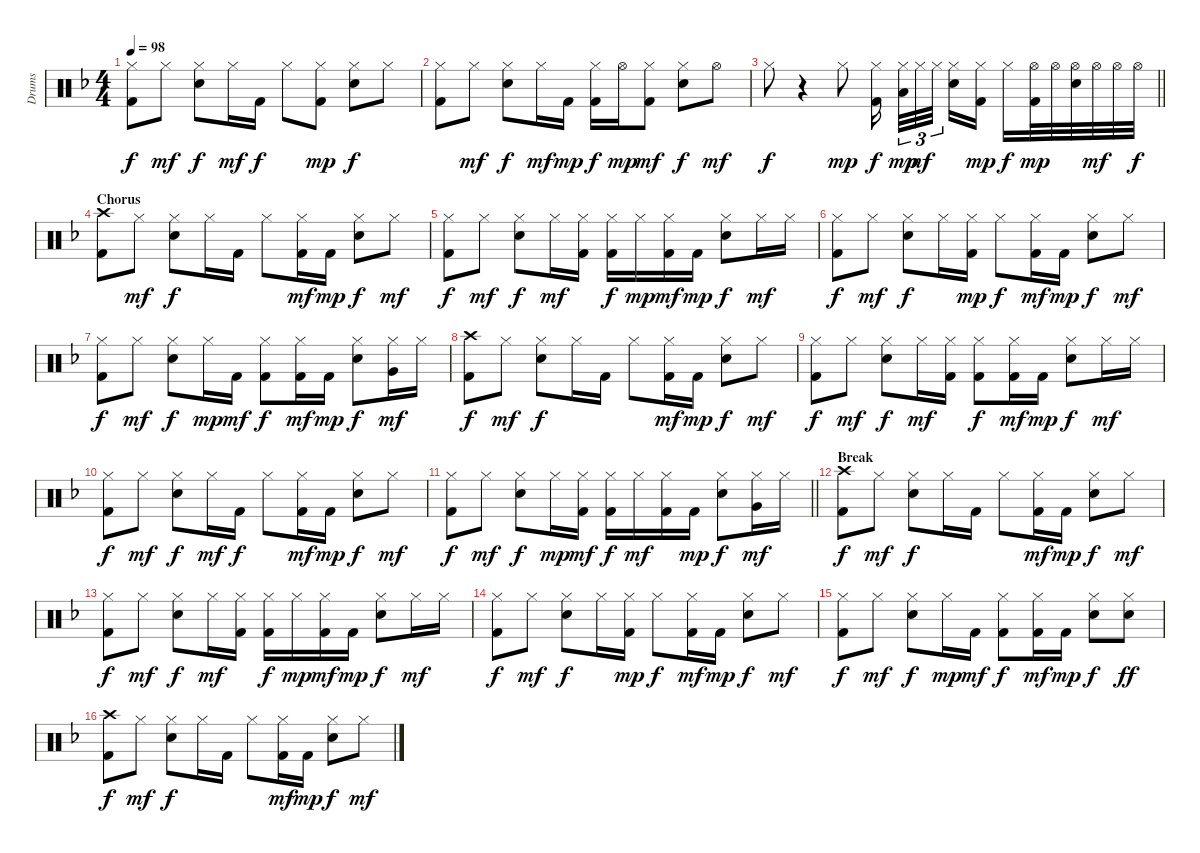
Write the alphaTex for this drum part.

\track ("Drums" "Drums") {instrument percussion}
\staff {score}
\articulation defaults
\ts (4 4)
\tempo 98
\clef neutral
\ks f
("Hi-Hat (closed)" "Kick (hit) 2").8{dy f} "Hi-Hat (closed)".8{dy mf} ("Hi-Hat (closed)" "Electric Snare (hit)").8{dy f} "Hi-Hat (closed)".16{dy mf} "Kick (hit) 2".16{dy f} "Hi-Hat (closed)".8 ("Hi-Hat (closed)" "Kick (hit) 2").8{dy mp} ("Hi-Hat (closed)" "Electric Snare (hit)").8{dy f} "Hi-Hat (closed)".8 |
("Hi-Hat (closed)" "Kick (hit) 2").8 "Hi-Hat (closed)".8{dy mf} ("Hi-Hat (closed)" "Electric Snare (hit)").8{dy f} "Hi-Hat (closed)".16{dy mf} "Kick (hit) 2".16{dy mp} ("Hi-Hat (closed)" "Kick (hit) 2").16{dy f} "Hi-Hat (open)".16{dy mp} ("Hi-Hat (closed)" "Kick (hit) 2").8{dy mf} ("Hi-Hat (closed)" "Electric Snare (hit)").8{dy f} "Hi-Hat (open)".8{dy mf} |
\barLineRight lightlight "Hi-Hat (closed)".8{dy f}
r.4 "Hi-Hat (closed)".8{dy mp} ("Hi-Hat (closed)" "Kick (hit) 2").16{dy f volume 14 beam splitsecondary} ("Hi-Hat (closed)" "Low Floor Tom (hit)").32{tu (3 2) dy mp} "Hi-Hat (closed)".32{tu (3 2) dy mf} "Hi-Hat (closed)".32{tu (3 2) beam splitsecondary} ("Hi-Hat (closed)" "Electric Snare (hit)").16 ("Hi-Hat (closed)" "Kick (hit) 2").16{dy mp} "Hi-Hat (closed)".16{dy f} ("Hi-Hat (open)" "Kick (hit) 2").32{dy mp} "Hi-Hat (open)".32 ("Hi-Hat (open)" "Electric Snare (hit)").32 "Hi-Hat (open)".32{dy mf} "Hi-Hat (open)".32 "Hi-Hat (open)".32{dy f} |
\section ("" "Chorus")
("Crash high (hit)" "Kick (hit) 2").8 "Hi-Hat (closed)".8{dy mf} ("Hi-Hat (closed)" "Electric Snare (hit)").8{dy f} "Hi-Hat (closed)".16 "Kick (hit) 2".16 "Hi-Hat (closed)".8 ("Hi-Hat (closed)" "Kick (hit) 2").16{dy mf} "Kick (hit) 2".16{dy mp} ("Hi-Hat (closed)" "Electric Snare (hit)").8{dy f} "Hi-Hat (closed)".8{dy mf} |
("Hi-Hat (closed)" "Kick (hit) 2").8{dy f} "Hi-Hat (closed)".8{dy mf} ("Hi-Hat (closed)" "Electric Snare (hit)").8{dy f} "Hi-Hat (closed)".16{dy mf} ("Hi-Hat (closed)" "Kick (hit) 2").16 ("Hi-Hat (closed)" "Kick (hit) 2").16{dy f} "Hi-Hat (closed)".16{dy mp} ("Hi-Hat (closed)" "Kick (hit) 2").16{dy mf} "Kick (hit) 2".16{dy mp} ("Hi-Hat (closed)" "Electric Snare (hit)").8{dy f} "Hi-Hat (closed)".16{dy mf} "Hi-Hat (closed)".16 |
("Hi-Hat (closed)" "Kick (hit) 2").8{dy f} "Hi-Hat (closed)".8{dy mf} ("Hi-Hat (closed)" "Electric Snare (hit)").8{dy f} "Hi-Hat (closed)".16 ("Hi-Hat (closed)" "Kick (hit) 2").16{dy mp} "Hi-Hat (closed)".8{dy f} ("Hi-Hat (closed)" "Kick (hit) 2").16{dy mf} "Kick (hit) 2".16{dy mp} ("Hi-Hat (closed)" "Electric Snare (hit)").8{dy f} "Hi-Hat (closed)".8{dy mf} |
("Hi-Hat (closed)" "Kick (hit) 2").8{dy f} "Hi-Hat (closed)".8{dy mf} ("Hi-Hat (closed)" "Electric Snare (hit)").8{dy f} "Hi-Hat (closed)".16{dy mp} "Kick (hit) 2".16{dy mf} ("Hi-Hat (closed)" "Kick (hit) 2").8{dy f} ("Hi-Hat (closed)" "Kick (hit) 2").16{dy mf} "Kick (hit) 2".16{dy mp} ("Hi-Hat (closed)" "Electric Snare (hit)").8{dy f} ("Hi-Hat (closed)" "Very Low Tom (hit)").16{dy mf} "Hi-Hat (closed)".16 |
("Crash high (hit)" "Kick (hit) 2").8{dy f} "Hi-Hat (closed)".8{dy mf} ("Hi-Hat (closed)" "Electric Snare (hit)").8{dy f} "Hi-Hat (closed)".16 "Kick (hit) 2".16 "Hi-Hat (closed)".8 ("Hi-Hat (closed)" "Kick (hit) 2").16{dy mf} "Kick (hit) 2".16{dy mp} ("Hi-Hat (closed)" "Electric Snare (hit)").8{dy f} "Hi-Hat (closed)".8{dy mf} |
("Hi-Hat (closed)" "Kick (hit) 2").8{dy f} "Hi-Hat (closed)".8{dy mf} ("Hi-Hat (closed)" "Electric Snare (hit)").8{dy f} "Hi-Hat (closed)".16{dy mf} ("Hi-Hat (closed)" "Kick (hit) 2").16 ("Hi-Hat (closed)" "Kick (hit) 2").8{dy f} ("Hi-Hat (closed)" "Kick (hit) 2").16{dy mf} "Kick (hit) 2".16{dy mp} ("Hi-Hat (closed)" "Electric Snare (hit)").8{dy f} "Hi-Hat (closed)".16{dy mf} "Hi-Hat (closed)".16 |
("Hi-Hat (closed)" "Kick (hit) 2").8{dy f} "Hi-Hat (closed)".8{dy mf} ("Hi-Hat (closed)" "Electric Snare (hit)").8{dy f} "Hi-Hat (closed)".16{dy mf} "Kick (hit) 2".16{dy f} "Hi-Hat (closed)".8 ("Hi-Hat (closed)" "Kick (hit) 2").16{dy mf} "Kick (hit) 2".16{dy mp} ("Hi-Hat (closed)" "Electric Snare (hit)").8{dy f} "Hi-Hat (closed)".8{dy mf} |
\barLineRight lightlight
("Hi-Hat (closed)" "Kick (hit) 2").8{dy f} "Hi-Hat (closed)".8{dy mf} ("Hi-Hat (closed)" "Electric Snare (hit)").8{dy f} "Hi-Hat (closed)".16{dy mp} ("Hi-Hat (closed)" "Kick (hit) 2").16{dy mf} ("Hi-Hat (closed)" "Kick (hit) 2").16{dy f} "Hi-Hat (closed)".16{dy mf} ("Hi-Hat (closed)" "Kick (hit) 2").16 "Kick (hit) 2".16{dy mp} ("Hi-Hat (closed)" "Electric Snare (hit)").8{dy f} ("Hi-Hat (closed)" "Very Low Tom (hit)").16{dy mf} "Hi-Hat (closed)".16 |
\section ("" "Break")
("Crash high (hit)" "Kick (hit) 2").8{dy f} "Hi-Hat (closed)".8{dy mf} ("Hi-Hat (closed)" "Electric Snare (hit)").8{dy f} "Hi-Hat (closed)".16 "Kick (hit) 2".16 "Hi-Hat (closed)".8 ("Hi-Hat (closed)" "Kick (hit) 2").16{dy mf} "Kick (hit) 2".16{dy mp} ("Hi-Hat (closed)" "Electric Snare (hit)").8{dy f} "Hi-Hat (closed)".8{dy mf} |
("Hi-Hat (closed)" "Kick (hit) 2").8{dy f} "Hi-Hat (closed)".8{dy mf} ("Hi-Hat (closed)" "Electric Snare (hit)").8{dy f} "Hi-Hat (closed)".16{dy mf} ("Hi-Hat (closed)" "Kick (hit) 2").16 ("Hi-Hat (closed)" "Kick (hit) 2").16{dy f} "Hi-Hat (closed)".16{dy mp} ("Hi-Hat (closed)" "Kick (hit) 2").16{dy mf} "Kick (hit) 2".16{dy mp} ("Hi-Hat (closed)" "Electric Snare (hit)").8{dy f} "Hi-Hat (closed)".16{dy mf} "Hi-Hat (closed)".16 |
("Hi-Hat (closed)" "Kick (hit) 2").8{dy f} "Hi-Hat (closed)".8{dy mf} ("Hi-Hat (closed)" "Electric Snare (hit)").8{dy f} "Hi-Hat (closed)".16 ("Hi-Hat (closed)" "Kick (hit) 2").16{dy mp} "Hi-Hat (closed)".8{dy f} ("Hi-Hat (closed)" "Kick (hit) 2").16{dy mf} "Kick (hit) 2".16{dy mp} ("Hi-Hat (closed)" "Electric Snare (hit)").8{dy f} "Hi-Hat (closed)".8{dy mf} |
("Hi-Hat (closed)" "Kick (hit) 2").8{dy f} "Hi-Hat (closed)".8{dy mf} ("Hi-Hat (closed)" "Electric Snare (hit)").8{dy f} "Hi-Hat (closed)".16{dy mp} "Kick (hit) 2".16{dy mf} ("Hi-Hat (closed)" "Kick (hit) 2").8{dy f} ("Hi-Hat (closed)" "Kick (hit) 2").16{dy mf} "Kick (hit) 2".16{dy mp} ("Hi-Hat (closed)" "Electric Snare (hit)").8{dy f} ("Hi-Hat (closed)" "Electric Snare (hit)").8{dy ff} |
("Crash high (hit)" "Kick (hit) 2").8{dy f} "Hi-Hat (closed)".8{dy mf} ("Hi-Hat (closed)" "Electric Snare (hit)").8{dy f} "Hi-Hat (closed)".16 "Kick (hit) 2".16 "Hi-Hat (closed)".8 ("Hi-Hat (closed)" "Kick (hit) 2").16{dy mf} "Kick (hit) 2".16{dy mp} ("Hi-Hat (closed)" "Electric Snare (hit)").8{dy f} "Hi-Hat (closed)".8{dy mf}
